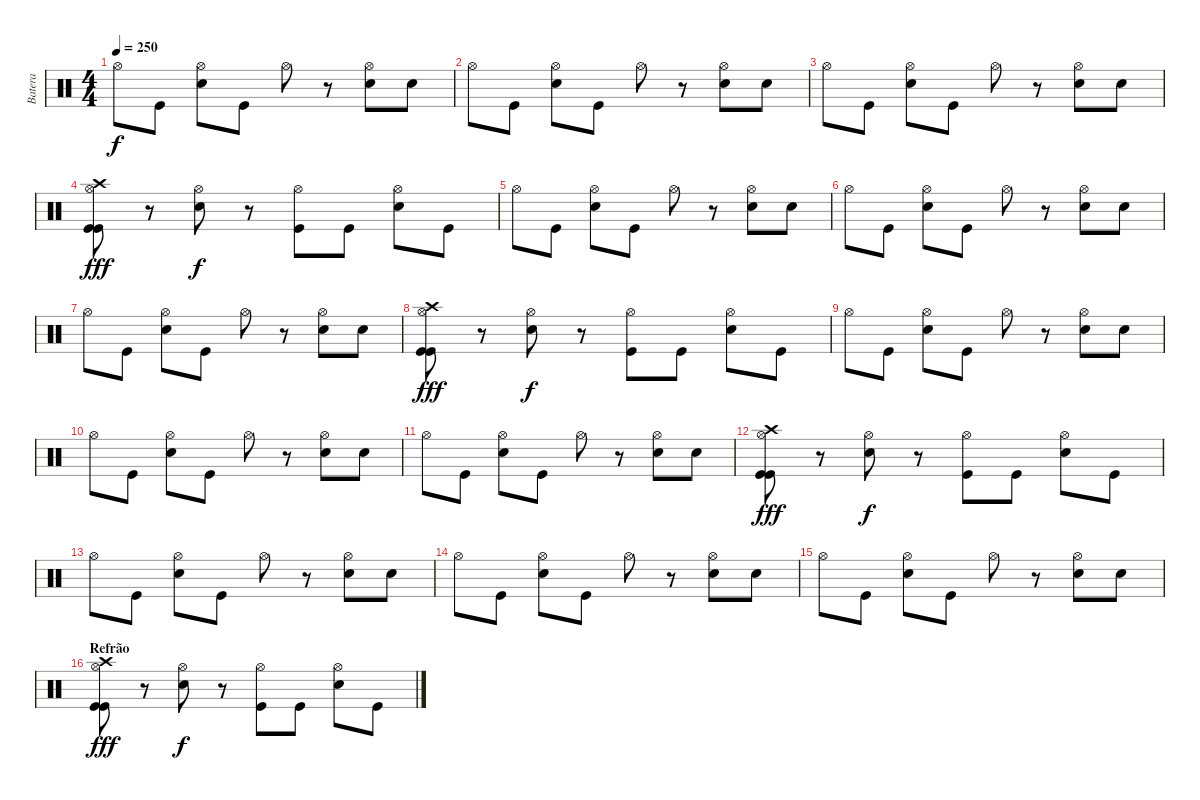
\track ("Batera" "Batera") {instrument percussion}
\staff {score}
\articulation defaults
\ts (4 4)
\tempo 250
\clef neutral
\ks c "Hi-Hat (open)".8{dy f} "Kick (hit)".8
("Hi-Hat (open)" "Electric Snare (hit)").8 "Kick (hit)".8 "Hi-Hat (open)".8 r.8 ("Hi-Hat (open)" "Electric Snare (hit)").8 "Electric Snare (hit)".8 |
"Hi-Hat (open)".8 "Kick (hit)".8 ("Hi-Hat (open)" "Electric Snare (hit)").8 "Kick (hit)".8 "Hi-Hat (open)".8 r.8 ("Hi-Hat (open)" "Electric Snare (hit)").8 "Electric Snare (hit)".8 |
"Hi-Hat (open)".8 "Kick (hit)".8 ("Hi-Hat (open)" "Electric Snare (hit)").8 "Kick (hit)".8 "Hi-Hat (open)".8 r.8 ("Hi-Hat (open)" "Electric Snare (hit)").8 "Electric Snare (hit)".8 |
("Hi-Hat (open)" "Crash high (hit)" "Kick (hit)" "Kick (hit)").8{dy fff} r.8 ("Hi-Hat (open)" "Electric Snare (hit)").8{dy f} r.8 ("Hi-Hat (open)" "Kick (hit)").8 "Kick (hit)".8 ("Hi-Hat (open)" "Electric Snare (hit)").8 "Kick (hit)".8 |
"Hi-Hat (open)".8 "Kick (hit)".8 ("Hi-Hat (open)" "Electric Snare (hit)").8 "Kick (hit)".8 "Hi-Hat (open)".8 r.8 ("Hi-Hat (open)" "Electric Snare (hit)").8 "Electric Snare (hit)".8 |
"Hi-Hat (open)".8 "Kick (hit)".8 ("Hi-Hat (open)" "Electric Snare (hit)").8 "Kick (hit)".8 "Hi-Hat (open)".8 r.8 ("Hi-Hat (open)" "Electric Snare (hit)").8 "Electric Snare (hit)".8 |
"Hi-Hat (open)".8 "Kick (hit)".8 ("Hi-Hat (open)" "Electric Snare (hit)").8 "Kick (hit)".8 "Hi-Hat (open)".8 r.8 ("Hi-Hat (open)" "Electric Snare (hit)").8 "Electric Snare (hit)".8 |
("Hi-Hat (open)" "Crash high (hit)" "Kick (hit)" "Kick (hit)").8{dy fff} r.8 ("Hi-Hat (open)" "Electric Snare (hit)").8{dy f} r.8 ("Hi-Hat (open)" "Kick (hit)").8 "Kick (hit)".8 ("Hi-Hat (open)" "Electric Snare (hit)").8 "Kick (hit)".8 |
"Hi-Hat (open)".8 "Kick (hit)".8 ("Hi-Hat (open)" "Electric Snare (hit)").8 "Kick (hit)".8 "Hi-Hat (open)".8 r.8 ("Hi-Hat (open)" "Electric Snare (hit)").8 "Electric Snare (hit)".8 |
"Hi-Hat (open)".8 "Kick (hit)".8 ("Hi-Hat (open)" "Electric Snare (hit)").8 "Kick (hit)".8 "Hi-Hat (open)".8 r.8 ("Hi-Hat (open)" "Electric Snare (hit)").8 "Electric Snare (hit)".8 |
"Hi-Hat (open)".8 "Kick (hit)".8 ("Hi-Hat (open)" "Electric Snare (hit)").8 "Kick (hit)".8 "Hi-Hat (open)".8 r.8 ("Hi-Hat (open)" "Electric Snare (hit)").8 "Electric Snare (hit)".8 |
("Hi-Hat (open)" "Crash high (hit)" "Kick (hit)" "Kick (hit)").8{dy fff} r.8 ("Hi-Hat (open)" "Electric Snare (hit)").8{dy f} r.8 ("Hi-Hat (open)" "Kick (hit)").8 "Kick (hit)".8 ("Hi-Hat (open)" "Electric Snare (hit)").8 "Kick (hit)".8 |
"Hi-Hat (open)".8 "Kick (hit)".8 ("Hi-Hat (open)" "Electric Snare (hit)").8 "Kick (hit)".8 "Hi-Hat (open)".8 r.8 ("Hi-Hat (open)" "Electric Snare (hit)").8 "Electric Snare (hit)".8 |
"Hi-Hat (open)".8 "Kick (hit)".8 ("Hi-Hat (open)" "Electric Snare (hit)").8 "Kick (hit)".8 "Hi-Hat (open)".8 r.8 ("Hi-Hat (open)" "Electric Snare (hit)").8 "Electric Snare (hit)".8 |
"Hi-Hat (open)".8 "Kick (hit)".8 ("Hi-Hat (open)" "Electric Snare (hit)").8 "Kick (hit)".8 "Hi-Hat (open)".8 r.8 ("Hi-Hat (open)" "Electric Snare (hit)").8 "Electric Snare (hit)".8 |
\section ("" "Refrão")
("Hi-Hat (open)" "Crash high (hit)" "Kick (hit)" "Kick (hit)").8{dy fff} r.8 ("Hi-Hat (open)" "Electric Snare (hit)").8{dy f} r.8 ("Hi-Hat (open)" "Kick (hit)").8 "Kick (hit)".8 ("Hi-Hat (open)" "Electric Snare (hit)").8 "Kick (hit)".8
